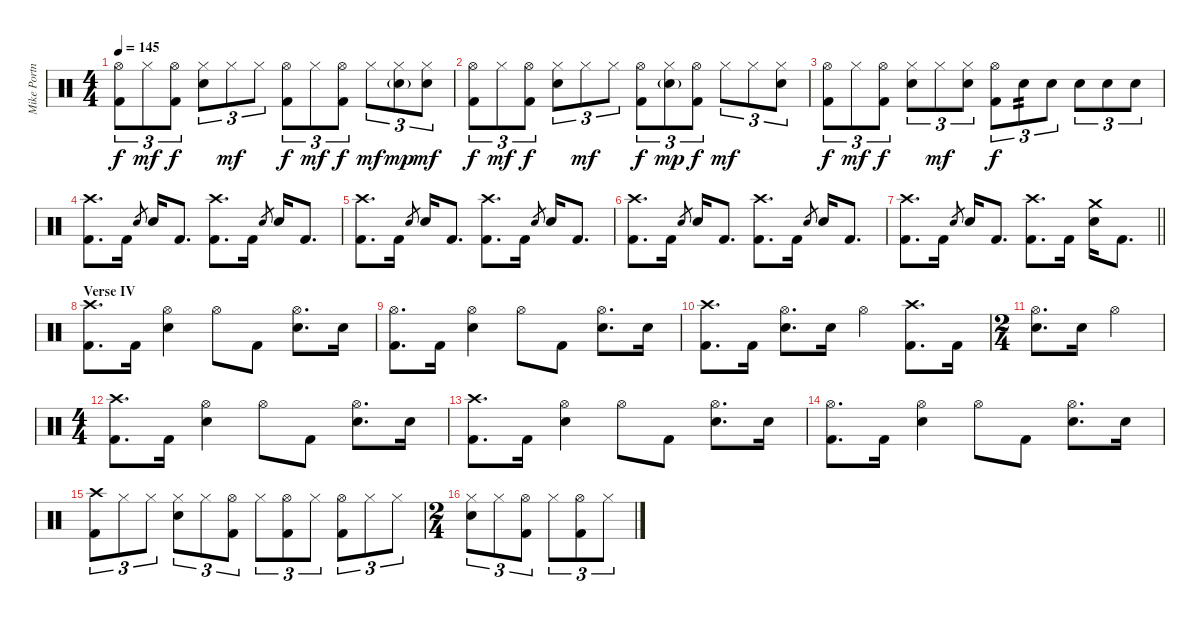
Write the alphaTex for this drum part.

\track ("Mike Portnoy" "Mike Portn") {instrument percussion}
\staff {score}
\articulation defaults
\ts (4 4)
\tempo 145
\clef neutral
\ks c
("Hi-Hat (open)" "Kick (hit) 2").8{tu (3 2) dy f} "Hi-Hat (closed)".8{tu (3 2) dy mf} ("Hi-Hat (open)" "Kick (hit) 2").8{tu (3 2) dy f} ("Hi-Hat (closed)" "Electric Snare (hit)").8{tu (3 2)} "Hi-Hat (closed)".8{tu (3 2) dy mf} "Hi-Hat (closed)".8{tu (3 2)} ("Hi-Hat (open)" "Kick (hit) 2").8{tu (3 2) dy f} "Hi-Hat (closed)".8{tu (3 2) dy mf} ("Hi-Hat (open)" "Kick (hit) 2").8{tu (3 2) dy f} "Hi-Hat (closed)".8{tu (3 2) dy mf} ("Hi-Hat (closed)" "Electric Snare (hit)"{g}).8{tu (3 2) dy mp} ("Hi-Hat (closed)" "Electric Snare (hit)").8{tu (3 2) dy mf} |
("Hi-Hat (open)" "Kick (hit) 2").8{tu (3 2) dy f} "Hi-Hat (closed)".8{tu (3 2) dy mf} ("Hi-Hat (open)" "Kick (hit) 2").8{tu (3 2) dy f} ("Hi-Hat (closed)" "Electric Snare (hit)").8{tu (3 2)} "Hi-Hat (closed)".8{tu (3 2) dy mf} "Hi-Hat (closed)".8{tu (3 2)} ("Hi-Hat (open)" "Kick (hit) 2").8{tu (3 2) dy f} ("Hi-Hat (closed)" "Electric Snare (hit)"{g}).8{tu (3 2) dy mp} ("Hi-Hat (open)" "Kick (hit) 2").8{tu (3 2) dy f} "Hi-Hat (closed)".8{tu (3 2) dy mf} "Hi-Hat (closed)".8{tu (3 2)} ("Hi-Hat (closed)" "Electric Snare (hit)").8{tu (3 2)} |
("Hi-Hat (open)" "Kick (hit) 2").8{tu (3 2) dy f} "Hi-Hat (closed)".8{tu (3 2) dy mf} ("Hi-Hat (open)" "Kick (hit) 2").8{tu (3 2) dy f} ("Hi-Hat (closed)" "Electric Snare (hit)").8{tu (3 2)} "Hi-Hat (closed)".8{tu (3 2) dy mf} ("Hi-Hat (closed)" "Electric Snare (hit)").8{tu (3 2)} ("Hi-Hat (open)" "Kick (hit) 2").8{tu (3 2) dy f} "Electric Snare (hit)".8{tu (3 2) tp 2} "Electric Snare (hit)".8{tu (3 2)} "Electric Snare (hit)".8{tu (3 2)} "Electric Snare (hit)".8{tu (3 2)} "Electric Snare (hit)".8{tu (3 2)} |
("Crash high (hit)" "Kick (hit) 2").8{d volume 13} "Kick (hit) 2".16 "Electric Snare (hit)".8{gr} "Electric Snare (hit)".16 "Kick (hit) 2".8{d} ("Crash high (hit)" "Kick (hit) 2").8{d} "Kick (hit) 2".16 "Electric Snare (hit)".8{gr} "Electric Snare (hit)".16 "Kick (hit) 2".8{d} |
("Crash high (hit)" "Kick (hit) 2").8{d} "Kick (hit) 2".16 "Electric Snare (hit)".8{gr} "Electric Snare (hit)".16 "Kick (hit) 2".8{d} ("Crash high (hit)" "Kick (hit) 2").8{d} "Kick (hit) 2".16 "Electric Snare (hit)".8{gr} "Electric Snare (hit)".16 "Kick (hit) 2".8{d} |
("Crash high (hit)" "Kick (hit) 2").8{d} "Kick (hit) 2".16 "Electric Snare (hit)".8{gr} "Electric Snare (hit)".16 "Kick (hit) 2".8{d} ("Crash high (hit)" "Kick (hit) 2").8{d} "Kick (hit) 2".16 "Electric Snare (hit)".8{gr} "Electric Snare (hit)".16 "Kick (hit) 2".8{d} |
\barLineRight lightlight
("Crash high (hit)" "Kick (hit) 2").8{d} "Kick (hit) 2".16 "Electric Snare (hit)".8{gr} "Electric Snare (hit)".16 "Kick (hit) 2".8{d} ("Crash high (hit)" "Kick (hit) 2").8{d} "Kick (hit) 2".16 ("Crash medium (hit)" "Electric Snare (hit)").16 "Kick (hit) 2".8{d} |
\section ("" "Verse IV")
("Crash high (hit)" "Kick (hit) 2").8{d} "Kick (hit) 2".16 ("Hi-Hat (open)" "Electric Snare (hit)").4 "Hi-Hat (open)".8 "Kick (hit) 2".8 ("Hi-Hat (open)" "Electric Snare (hit)").8{d} "Electric Snare (hit)".16 |
("Hi-Hat (open)" "Kick (hit) 2").8{d} "Kick (hit) 2".16 ("Hi-Hat (open)" "Electric Snare (hit)").4 "Hi-Hat (open)".8 "Kick (hit) 2".8 ("Hi-Hat (open)" "Electric Snare (hit)").8{d} "Electric Snare (hit)".16 |
("Crash high (hit)" "Kick (hit) 2").8{d} "Kick (hit) 2".16 ("Hi-Hat (open)" "Electric Snare (hit)").8{d} "Electric Snare (hit)".16 "Hi-Hat (open)".4 ("Crash high (hit)" "Kick (hit) 2").8{d} "Kick (hit) 2".16 |
\ts (2 4)
("Hi-Hat (open)" "Electric Snare (hit)").8{d} "Electric Snare (hit)".16 "Hi-Hat (open)".4 |
\ts (4 4)
("Crash high (hit)" "Kick (hit) 2").8{d} "Kick (hit) 2".16 ("Hi-Hat (open)" "Electric Snare (hit)").4 "Hi-Hat (open)".8 "Kick (hit) 2".8 ("Hi-Hat (open)" "Electric Snare (hit)").8{d} "Electric Snare (hit)".16 |
("Crash high (hit)" "Kick (hit) 2").8{d} "Kick (hit) 2".16 ("Hi-Hat (open)" "Electric Snare (hit)").4 "Hi-Hat (open)".8 "Kick (hit) 2".8 ("Hi-Hat (open)" "Electric Snare (hit)").8{d} "Electric Snare (hit)".16 |
("Hi-Hat (open)" "Kick (hit) 2").8{d} "Kick (hit) 2".16 ("Hi-Hat (open)" "Electric Snare (hit)").4 "Hi-Hat (open)".8 "Kick (hit) 2".8 ("Hi-Hat (open)" "Electric Snare (hit)").8{d} "Electric Snare (hit)".16 |
("Crash high (hit)" "Kick (hit) 2").8{tu (3 2)} "Hi-Hat (closed)".8{tu (3 2)} "Hi-Hat (closed)".8{tu (3 2)} ("Hi-Hat (closed)" "Electric Snare (hit)").8{tu (3 2)} "Hi-Hat (closed)".8{tu (3 2)} ("Hi-Hat (open)" "Kick (hit) 2").8{tu (3 2)} "Hi-Hat (closed)".8{tu (3 2)} ("Hi-Hat (open)" "Kick (hit) 2").8{tu (3 2)} "Hi-Hat (closed)".8{tu (3 2)} ("Hi-Hat (open)" "Kick (hit) 2").8{tu (3 2)} "Hi-Hat (closed)".8{tu (3 2)} "Hi-Hat (closed)".8{tu (3 2)} |
\ts (2 4)
("Hi-Hat (closed)" "Electric Snare (hit)").8{tu (3 2)} "Hi-Hat (closed)".8{tu (3 2)} ("Hi-Hat (open)" "Kick (hit) 2").8{tu (3 2)} "Hi-Hat (closed)".8{tu (3 2)} ("Hi-Hat (open)" "Kick (hit) 2").8{tu (3 2)} "Hi-Hat (closed)".8{tu (3 2)}
